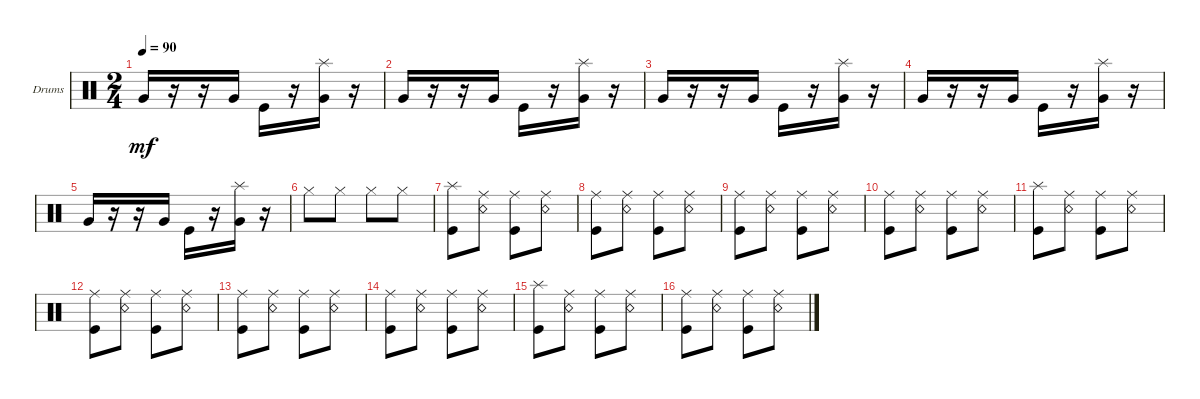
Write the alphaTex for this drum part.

\defaultSystemsLayout 4
\bracketExtendMode groupsimilarinstruments
\firstSystemTrackNameOrientation horizontal
\otherSystemsTrackNameOrientation horizontal
\track ("Drumkit" "Drums") {instrument percussion}
\staff {score}
\articulation defaults
\ts (2 4)
\tempo 90
\clef neutral
\ks c "Very Low Tom (hit)".16{dy mf}
r.16 r.16 "Very Low Tom (hit)".16 "Kick (hit)".16 r.16 ("Very Low Tom (hit)" "Splash (hit)").16 r.16 |
"Very Low Tom (hit)".16 r.16 r.16 "Very Low Tom (hit)".16 "Kick (hit)".16 r.16 ("Very Low Tom (hit)" "Splash (hit)").16 r.16 |
"Very Low Tom (hit)".16 r.16 r.16 "Very Low Tom (hit)".16 "Kick (hit)".16 r.16 ("Very Low Tom (hit)" "Splash (hit)").16 r.16 |
"Very Low Tom (hit)".16 r.16 r.16 "Very Low Tom (hit)".16 "Kick (hit)".16 r.16 ("Very Low Tom (hit)" "Splash (hit)").16 r.16 |
"Very Low Tom (hit)".16 r.16 r.16 "Very Low Tom (hit)".16 "Kick (hit)".16 r.16 ("Very Low Tom (hit)" "Splash (hit)").16 r.16 |
"Hi-Hat (closed)".8 "Hi-Hat (closed)".8 "Hi-Hat (closed)".8 "Hi-Hat (closed)".8 |
("Kick (hit)" "Splash (hit)").8 ("Ride (middle)" "Snare (rim shot)").8 ("Ride (middle)" "Kick (hit)").8 ("Ride (middle)" "Snare (rim shot)").8 |
("Kick (hit)" "Ride (middle)").8 ("Ride (middle)" "Snare (rim shot)").8 ("Ride (middle)" "Kick (hit)").8 ("Ride (middle)" "Snare (rim shot)").8 |
("Kick (hit)" "Ride (middle)").8 ("Ride (middle)" "Snare (rim shot)").8 ("Ride (middle)" "Kick (hit)").8 ("Ride (middle)" "Snare (rim shot)").8 |
("Kick (hit)" "Ride (middle)").8 ("Ride (middle)" "Snare (rim shot)").8 ("Ride (middle)" "Kick (hit)").8 ("Ride (middle)" "Snare (rim shot)").8 |
("Kick (hit)" "Splash (hit)").8 ("Ride (middle)" "Snare (rim shot)").8 ("Ride (middle)" "Kick (hit)").8 ("Ride (middle)" "Snare (rim shot)").8 |
("Kick (hit)" "Ride (middle)").8 ("Ride (middle)" "Snare (rim shot)").8 ("Ride (middle)" "Kick (hit)").8 ("Ride (middle)" "Snare (rim shot)").8 |
("Kick (hit)" "Ride (middle)").8 ("Ride (middle)" "Snare (rim shot)").8 ("Ride (middle)" "Kick (hit)").8 ("Ride (middle)" "Snare (rim shot)").8 |
("Kick (hit)" "Ride (middle)").8 ("Ride (middle)" "Snare (rim shot)").8 ("Ride (middle)" "Kick (hit)").8 ("Ride (middle)" "Snare (rim shot)").8 |
("Kick (hit)" "Splash (hit)").8 ("Ride (middle)" "Snare (rim shot)").8 ("Ride (middle)" "Kick (hit)").8 ("Ride (middle)" "Snare (rim shot)").8 |
("Kick (hit)" "Ride (middle)").8 ("Ride (middle)" "Snare (rim shot)").8 ("Ride (middle)" "Kick (hit)").8 ("Ride (middle)" "Snare (rim shot)").8
